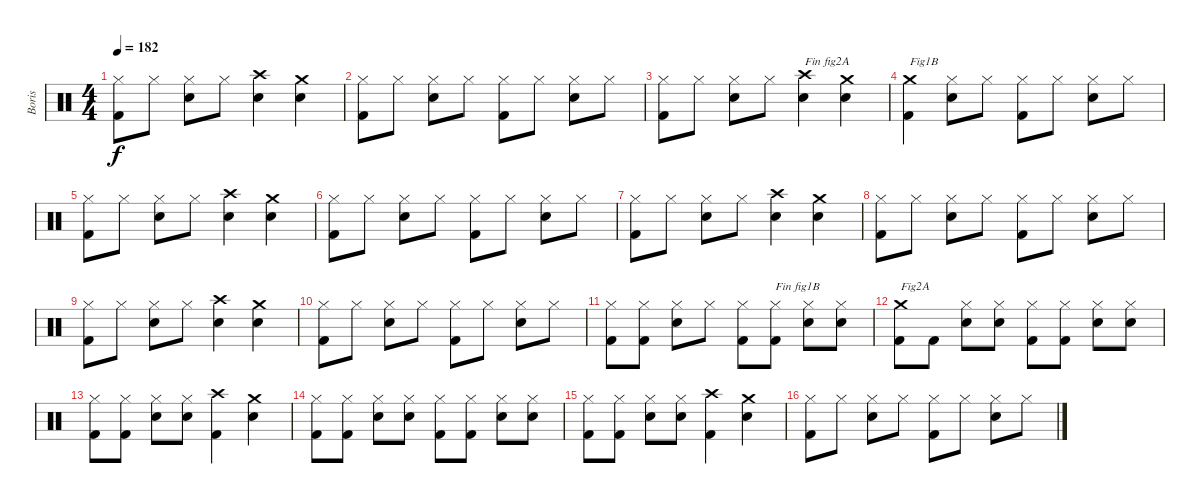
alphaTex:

\track ("Boris" "Boris") {instrument percussion}
\staff {score}
\articulation defaults
\ts (4 4)
\tempo 182
\clef neutral
\ks c
("Kick (hit) 2" "Hi-Hat (closed)").8{dy f} "Hi-Hat (closed)".8 ("Electric Snare (hit)" "Hi-Hat (closed)").8 "Hi-Hat (closed)".8 ("Electric Snare (hit)" "Crash high (hit)").4 ("Electric Snare (hit)" "Crash medium (hit)").4 |
("Kick (hit) 2" "Hi-Hat (closed)").8 "Hi-Hat (closed)".8 ("Electric Snare (hit)" "Hi-Hat (closed)").8 "Hi-Hat (closed)".8 ("Kick (hit) 2" "Hi-Hat (closed)").8 "Hi-Hat (closed)".8 ("Electric Snare (hit)" "Hi-Hat (closed)").8 "Hi-Hat (closed)".8 |
("Kick (hit) 2" "Hi-Hat (closed)").8 "Hi-Hat (closed)".8 ("Electric Snare (hit)" "Hi-Hat (closed)").8 "Hi-Hat (closed)".8 ("Electric Snare (hit)" "Crash high (hit)").4{txt "Fin fig2A"} ("Electric Snare (hit)" "Crash medium (hit)").4 |
("Kick (hit) 2" "Crash medium (hit)").4{txt "Fig1B"} ("Electric Snare (hit)" "Hi-Hat (closed)").8 "Hi-Hat (closed)".8 ("Kick (hit) 2" "Hi-Hat (closed)").8 "Hi-Hat (closed)".8 ("Electric Snare (hit)" "Hi-Hat (closed)").8 "Hi-Hat (closed)".8 |
("Kick (hit) 2" "Hi-Hat (closed)").8 "Hi-Hat (closed)".8 ("Electric Snare (hit)" "Hi-Hat (closed)").8 "Hi-Hat (closed)".8 ("Electric Snare (hit)" "Crash high (hit)").4 ("Electric Snare (hit)" "Crash medium (hit)").4 |
("Kick (hit) 2" "Hi-Hat (closed)").8 "Hi-Hat (closed)".8 ("Electric Snare (hit)" "Hi-Hat (closed)").8 "Hi-Hat (closed)".8 ("Kick (hit) 2" "Hi-Hat (closed)").8 "Hi-Hat (closed)".8 ("Electric Snare (hit)" "Hi-Hat (closed)").8 "Hi-Hat (closed)".8 |
("Kick (hit) 2" "Hi-Hat (closed)").8 "Hi-Hat (closed)".8 ("Electric Snare (hit)" "Hi-Hat (closed)").8 "Hi-Hat (closed)".8 ("Electric Snare (hit)" "Crash high (hit)").4 ("Electric Snare (hit)" "Crash medium (hit)").4 |
("Kick (hit) 2" "Hi-Hat (closed)").8 "Hi-Hat (closed)".8 ("Electric Snare (hit)" "Hi-Hat (closed)").8 "Hi-Hat (closed)".8 ("Kick (hit) 2" "Hi-Hat (closed)").8 "Hi-Hat (closed)".8 ("Electric Snare (hit)" "Hi-Hat (closed)").8 "Hi-Hat (closed)".8 |
("Kick (hit) 2" "Hi-Hat (closed)").8 "Hi-Hat (closed)".8 ("Electric Snare (hit)" "Hi-Hat (closed)").8 "Hi-Hat (closed)".8 ("Electric Snare (hit)" "Crash high (hit)").4 ("Electric Snare (hit)" "Crash medium (hit)").4 |
("Kick (hit) 2" "Hi-Hat (closed)").8 "Hi-Hat (closed)".8 ("Electric Snare (hit)" "Hi-Hat (closed)").8 "Hi-Hat (closed)".8 ("Kick (hit) 2" "Hi-Hat (closed)").8 "Hi-Hat (closed)".8 ("Electric Snare (hit)" "Hi-Hat (closed)").8 "Hi-Hat (closed)".8 |
("Kick (hit) 2" "Hi-Hat (closed)").8 ("Kick (hit) 2" "Hi-Hat (closed)").8 ("Electric Snare (hit)" "Hi-Hat (closed)").8 "Hi-Hat (closed)".8 ("Kick (hit) 2" "Hi-Hat (closed)").8 ("Kick (hit) 2" "Hi-Hat (closed)").8{txt "Fin fig1B"} ("Electric Snare (hit)" "Hi-Hat (closed)").8 ("Electric Snare (hit)" "Hi-Hat (closed)").8 |
("Kick (hit) 2" "Crash medium (hit)").8{txt "Fig2A"} "Kick (hit) 2".8 ("Electric Snare (hit)" "Hi-Hat (closed)").8 ("Electric Snare (hit)" "Hi-Hat (closed)").8 ("Kick (hit) 2" "Hi-Hat (closed)").8 ("Kick (hit) 2" "Hi-Hat (closed)").8 ("Electric Snare (hit)" "Hi-Hat (closed)").8 ("Electric Snare (hit)" "Hi-Hat (closed)").8 |
("Kick (hit) 2" "Hi-Hat (closed)").8 ("Kick (hit) 2" "Hi-Hat (closed)").8 ("Electric Snare (hit)" "Hi-Hat (closed)").8 ("Electric Snare (hit)" "Hi-Hat (closed)").8 ("Kick (hit) 2" "Crash high (hit)").4 ("Electric Snare (hit)" "Crash medium (hit)").4 |
("Kick (hit) 2" "Hi-Hat (closed)").8 ("Kick (hit) 2" "Hi-Hat (closed)").8 ("Electric Snare (hit)" "Hi-Hat (closed)").8 ("Electric Snare (hit)" "Hi-Hat (closed)").8 ("Kick (hit) 2" "Hi-Hat (closed)").8 ("Kick (hit) 2" "Hi-Hat (closed)").8 ("Electric Snare (hit)" "Hi-Hat (closed)").8 ("Electric Snare (hit)" "Hi-Hat (closed)").8 |
("Kick (hit) 2" "Hi-Hat (closed)").8 ("Kick (hit) 2" "Hi-Hat (closed)").8 ("Electric Snare (hit)" "Hi-Hat (closed)").8 ("Electric Snare (hit)" "Hi-Hat (closed)").8 ("Kick (hit) 2" "Crash high (hit)").4 ("Electric Snare (hit)" "Crash medium (hit)").4 |
("Kick (hit) 2" "Hi-Hat (closed)").8 "Hi-Hat (closed)".8 ("Electric Snare (hit)" "Hi-Hat (closed)").8 "Hi-Hat (closed)".8 ("Kick (hit) 2" "Hi-Hat (closed)").8 "Hi-Hat (closed)".8 ("Electric Snare (hit)" "Hi-Hat (closed)").8 "Hi-Hat (closed)".8
